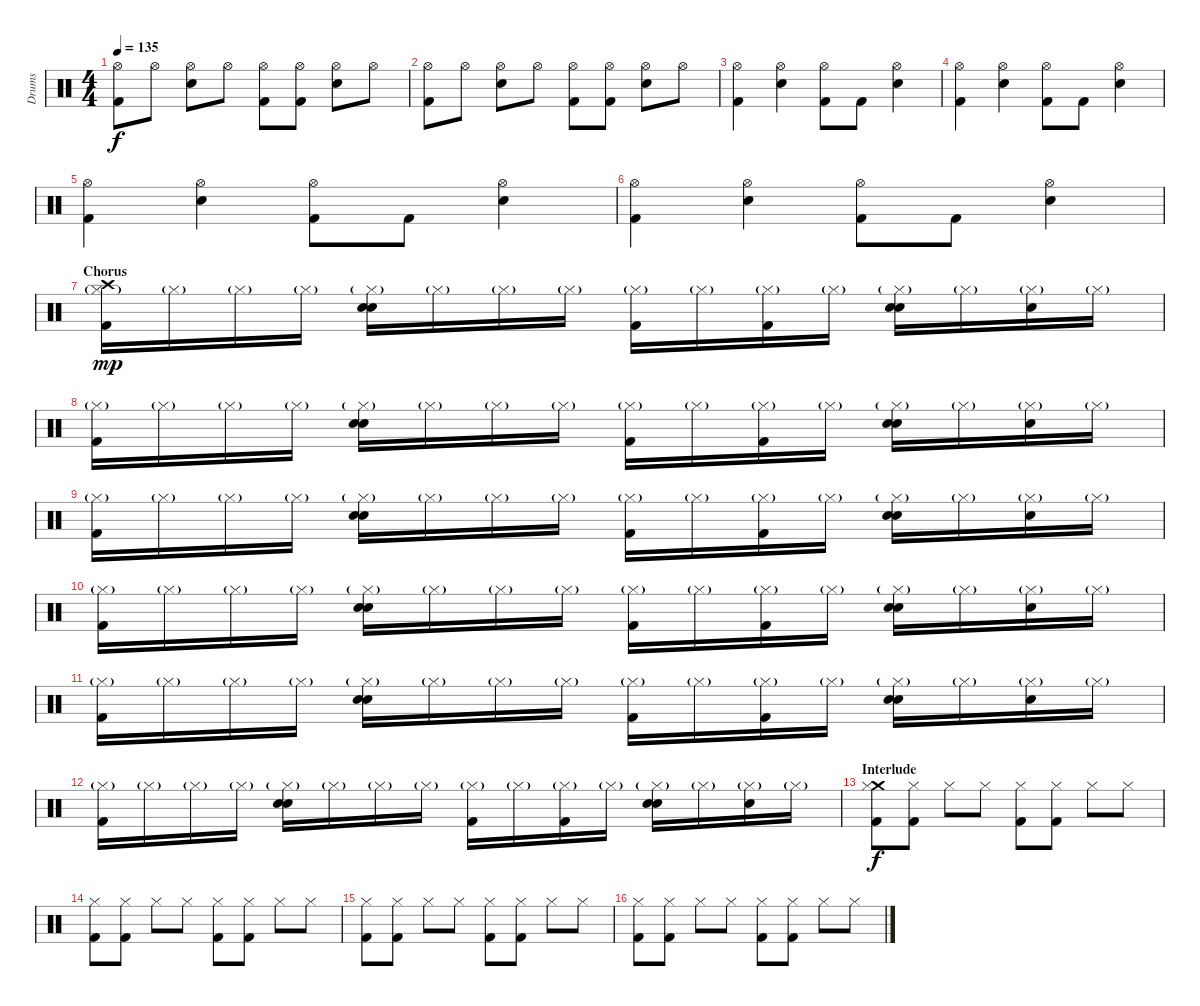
\track ("Drums" "Drums") {instrument percussion}
\staff {score}
\articulation defaults
\ts (4 4)
\tempo 135
\clef neutral
\ks c
("Hi-Hat (open)" "Kick (hit) 2").8{dy f} "Hi-Hat (open)".8 ("Hi-Hat (open)" "Snare (hit) 2").8 "Hi-Hat (open)".8 ("Hi-Hat (open)" "Kick (hit) 2").8 ("Hi-Hat (open)" "Kick (hit) 2").8 ("Hi-Hat (open)" "Snare (hit) 2").8 "Hi-Hat (open)".8 |
("Hi-Hat (open)" "Kick (hit) 2").8 "Hi-Hat (open)".8 ("Hi-Hat (open)" "Snare (hit) 2").8 "Hi-Hat (open)".8 ("Hi-Hat (open)" "Kick (hit) 2").8 ("Hi-Hat (open)" "Kick (hit) 2").8 ("Hi-Hat (open)" "Snare (hit) 2").8 "Hi-Hat (open)".8 |
("Hi-Hat (open)" "Kick (hit) 2").4 ("Hi-Hat (open)" "Snare (hit) 2").4 ("Hi-Hat (open)" "Kick (hit) 2").8 "Kick (hit) 2".8 ("Hi-Hat (open)" "Snare (hit) 2").4 |
("Hi-Hat (open)" "Kick (hit) 2").4 ("Hi-Hat (open)" "Snare (hit) 2").4 ("Hi-Hat (open)" "Kick (hit) 2").8 "Kick (hit) 2".8 ("Hi-Hat (open)" "Snare (hit) 2").4 |
("Hi-Hat (open)" "Kick (hit) 2").4 ("Hi-Hat (open)" "Snare (hit) 2").4 ("Hi-Hat (open)" "Kick (hit) 2").8 "Kick (hit) 2".8 ("Hi-Hat (open)" "Snare (hit) 2").4 |
("Hi-Hat (open)" "Kick (hit) 2").4 ("Hi-Hat (open)" "Snare (hit) 2").4 ("Hi-Hat (open)" "Kick (hit) 2").8 "Kick (hit) 2".8 ("Hi-Hat (open)" "Snare (hit) 2").4 |
\section ("" "Chorus")
("Crash high (hit)" "Hi-Hat (closed)"{g} "Kick (hit) 2").16{dy mp} "Hi-Hat (closed)"{g}.16 "Hi-Hat (closed)"{g}.16 "Hi-Hat (closed)"{g}.16 ("Hand Clap (hit)" "Hi-Hat (closed)"{g} "Snare (hit) 2").16 "Hi-Hat (closed)"{g}.16 "Hi-Hat (closed)"{g}.16 "Hi-Hat (closed)"{g}.16 ("Hi-Hat (closed)"{g} "Kick (hit) 2").16 "Hi-Hat (closed)"{g}.16 ("Hi-Hat (closed)"{g} "Kick (hit) 2").16 "Hi-Hat (closed)"{g}.16 ("Hand Clap (hit)" "Hi-Hat (closed)"{g} "Snare (hit) 2").16 "Hi-Hat (closed)"{g}.16 ("Hand Clap (hit)" "Hi-Hat (closed)"{g}).16 "Hi-Hat (closed)"{g}.16 |
("Hi-Hat (closed)"{g} "Kick (hit) 2").16 "Hi-Hat (closed)"{g}.16 "Hi-Hat (closed)"{g}.16 "Hi-Hat (closed)"{g}.16 ("Hand Clap (hit)" "Hi-Hat (closed)"{g} "Snare (hit) 2").16 "Hi-Hat (closed)"{g}.16 "Hi-Hat (closed)"{g}.16 "Hi-Hat (closed)"{g}.16 ("Hi-Hat (closed)"{g} "Kick (hit) 2").16 "Hi-Hat (closed)"{g}.16 ("Hi-Hat (closed)"{g} "Kick (hit) 2").16 "Hi-Hat (closed)"{g}.16 ("Hand Clap (hit)" "Hi-Hat (closed)"{g} "Snare (hit) 2").16 "Hi-Hat (closed)"{g}.16 ("Hand Clap (hit)" "Hi-Hat (closed)"{g}).16 "Hi-Hat (closed)"{g}.16 |
("Hi-Hat (closed)"{g} "Kick (hit) 2").16 "Hi-Hat (closed)"{g}.16 "Hi-Hat (closed)"{g}.16 "Hi-Hat (closed)"{g}.16 ("Hand Clap (hit)" "Hi-Hat (closed)"{g} "Snare (hit) 2").16 "Hi-Hat (closed)"{g}.16 "Hi-Hat (closed)"{g}.16 "Hi-Hat (closed)"{g}.16 ("Hi-Hat (closed)"{g} "Kick (hit) 2").16 "Hi-Hat (closed)"{g}.16 ("Hi-Hat (closed)"{g} "Kick (hit) 2").16 "Hi-Hat (closed)"{g}.16 ("Hand Clap (hit)" "Hi-Hat (closed)"{g} "Snare (hit) 2").16 "Hi-Hat (closed)"{g}.16 ("Hand Clap (hit)" "Hi-Hat (closed)"{g}).16 "Hi-Hat (closed)"{g}.16 |
("Hi-Hat (closed)"{g} "Kick (hit) 2").16 "Hi-Hat (closed)"{g}.16 "Hi-Hat (closed)"{g}.16 "Hi-Hat (closed)"{g}.16 ("Hand Clap (hit)" "Hi-Hat (closed)"{g} "Snare (hit) 2").16 "Hi-Hat (closed)"{g}.16 "Hi-Hat (closed)"{g}.16 "Hi-Hat (closed)"{g}.16 ("Hi-Hat (closed)"{g} "Kick (hit) 2").16 "Hi-Hat (closed)"{g}.16 ("Hi-Hat (closed)"{g} "Kick (hit) 2").16 "Hi-Hat (closed)"{g}.16 ("Hand Clap (hit)" "Hi-Hat (closed)"{g} "Snare (hit) 2").16 "Hi-Hat (closed)"{g}.16 ("Hand Clap (hit)" "Hi-Hat (closed)"{g}).16 "Hi-Hat (closed)"{g}.16 |
("Hi-Hat (closed)"{g} "Kick (hit) 2").16 "Hi-Hat (closed)"{g}.16 "Hi-Hat (closed)"{g}.16 "Hi-Hat (closed)"{g}.16 ("Hand Clap (hit)" "Hi-Hat (closed)"{g} "Snare (hit) 2").16 "Hi-Hat (closed)"{g}.16 "Hi-Hat (closed)"{g}.16 "Hi-Hat (closed)"{g}.16 ("Hi-Hat (closed)"{g} "Kick (hit) 2").16 "Hi-Hat (closed)"{g}.16 ("Hi-Hat (closed)"{g} "Kick (hit) 2").16 "Hi-Hat (closed)"{g}.16 ("Hand Clap (hit)" "Hi-Hat (closed)"{g} "Snare (hit) 2").16 "Hi-Hat (closed)"{g}.16 ("Hand Clap (hit)" "Hi-Hat (closed)"{g}).16 "Hi-Hat (closed)"{g}.16 |
("Hi-Hat (closed)"{g} "Kick (hit) 2").16 "Hi-Hat (closed)"{g}.16 "Hi-Hat (closed)"{g}.16 "Hi-Hat (closed)"{g}.16 ("Hand Clap (hit)" "Hi-Hat (closed)"{g} "Snare (hit) 2").16 "Hi-Hat (closed)"{g}.16 "Hi-Hat (closed)"{g}.16 "Hi-Hat (closed)"{g}.16 ("Hi-Hat (closed)"{g} "Kick (hit) 2").16 "Hi-Hat (closed)"{g}.16 ("Hi-Hat (closed)"{g} "Kick (hit) 2").16 "Hi-Hat (closed)"{g}.16 ("Hand Clap (hit)" "Hi-Hat (closed)"{g} "Snare (hit) 2").16 "Hi-Hat (closed)"{g}.16 ("Hand Clap (hit)" "Hi-Hat (closed)"{g}).16 "Hi-Hat (closed)"{g}.16 |
\section ("" "Interlude")
("Crash medium (hit)" "Hi-Hat (closed)" "Kick (hit) 2").8{dy f} ("Hi-Hat (closed)" "Kick (hit) 2").8 "Hi-Hat (closed)".8 "Hi-Hat (closed)".8 ("Hi-Hat (closed)" "Kick (hit) 2").8 ("Hi-Hat (closed)" "Kick (hit) 2").8 "Hi-Hat (closed)".8 "Hi-Hat (closed)".8 |
("Hi-Hat (closed)" "Kick (hit) 2").8 ("Hi-Hat (closed)" "Kick (hit) 2").8 "Hi-Hat (closed)".8 "Hi-Hat (closed)".8 ("Hi-Hat (closed)" "Kick (hit) 2").8 ("Hi-Hat (closed)" "Kick (hit) 2").8 "Hi-Hat (closed)".8 "Hi-Hat (closed)".8 |
("Hi-Hat (closed)" "Kick (hit) 2").8 ("Hi-Hat (closed)" "Kick (hit) 2").8 "Hi-Hat (closed)".8 "Hi-Hat (closed)".8 ("Hi-Hat (closed)" "Kick (hit) 2").8 ("Hi-Hat (closed)" "Kick (hit) 2").8 "Hi-Hat (closed)".8 "Hi-Hat (closed)".8 |
("Hi-Hat (closed)" "Kick (hit) 2").8 ("Hi-Hat (closed)" "Kick (hit) 2").8 "Hi-Hat (closed)".8 "Hi-Hat (closed)".8 ("Hi-Hat (closed)" "Kick (hit) 2").8 ("Hi-Hat (closed)" "Kick (hit) 2").8 "Hi-Hat (closed)".8 "Hi-Hat (closed)".8
